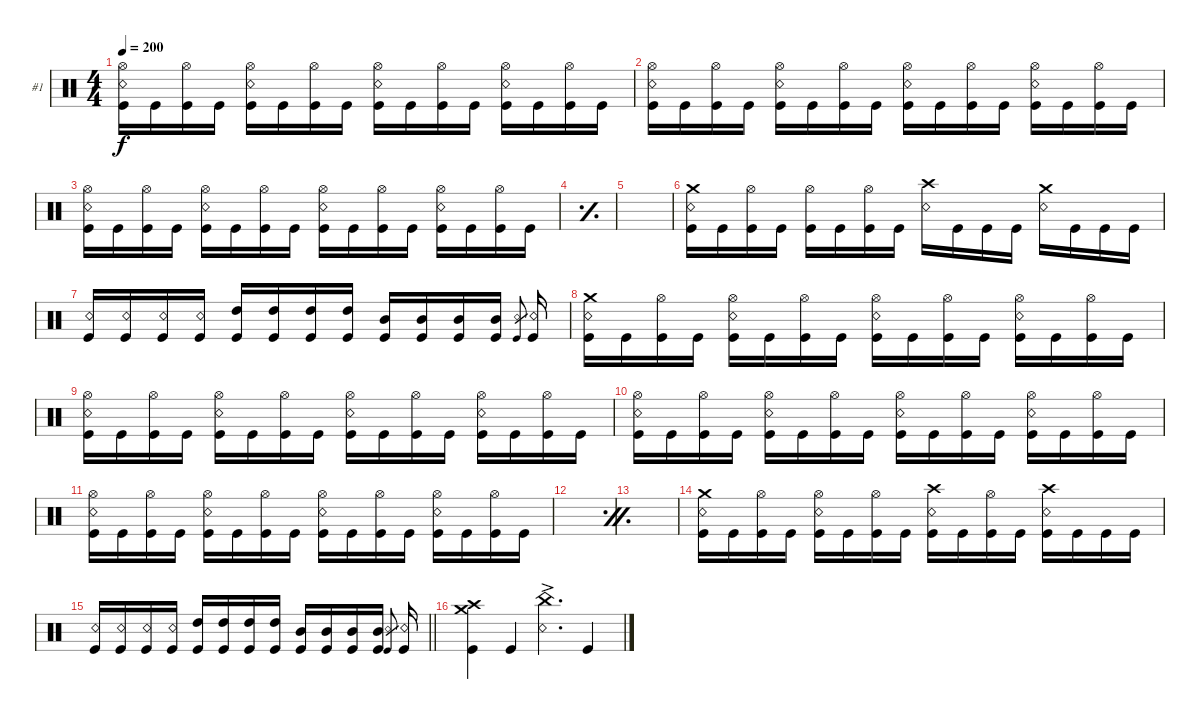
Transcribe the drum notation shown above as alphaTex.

\bracketExtendMode groupsimilarinstruments
\firstSystemTrackNameOrientation horizontal
\otherSystemsTrackNameOrientation horizontal
\track ("Joey Jordison" "#1") {instrument percussion}
\staff {score}
\articulation defaults
\ts (4 4)
\tempo 200
\clef neutral
\ks c
("Kick (hit)" "Snare (rim shot)" "Hi-Hat (open)").16{dy f} "Kick (hit)".16 ("Kick (hit)" "Hi-Hat (open)").16 "Kick (hit)".16 ("Kick (hit)" "Snare (rim shot)" "Hi-Hat (open)").16 "Kick (hit)".16 ("Kick (hit)" "Hi-Hat (open)").16 "Kick (hit)".16 ("Kick (hit)" "Snare (rim shot)" "Hi-Hat (open)").16 "Kick (hit)".16 ("Kick (hit)" "Hi-Hat (open)").16 "Kick (hit)".16 ("Kick (hit)" "Snare (rim shot)" "Hi-Hat (open)").16 "Kick (hit)".16 ("Kick (hit)" "Hi-Hat (open)").16 "Kick (hit)".16 |
("Kick (hit)" "Snare (rim shot)" "Hi-Hat (open)").16 "Kick (hit)".16 ("Kick (hit)" "Hi-Hat (open)").16 "Kick (hit)".16 ("Kick (hit)" "Snare (rim shot)" "Hi-Hat (open)").16 "Kick (hit)".16 ("Kick (hit)" "Hi-Hat (open)").16 "Kick (hit)".16 ("Kick (hit)" "Snare (rim shot)" "Hi-Hat (open)").16 "Kick (hit)".16 ("Kick (hit)" "Hi-Hat (open)").16 "Kick (hit)".16 ("Kick (hit)" "Snare (rim shot)" "Hi-Hat (open)").16 "Kick (hit)".16 ("Kick (hit)" "Hi-Hat (open)").16 "Kick (hit)".16 |
("Kick (hit)" "Snare (rim shot)" "Hi-Hat (open)").16 "Kick (hit)".16 ("Kick (hit)" "Hi-Hat (open)").16 "Kick (hit)".16 ("Kick (hit)" "Snare (rim shot)" "Hi-Hat (open)").16 "Kick (hit)".16 ("Kick (hit)" "Hi-Hat (open)").16 "Kick (hit)".16 ("Kick (hit)" "Snare (rim shot)" "Hi-Hat (open)").16 "Kick (hit)".16 ("Kick (hit)" "Hi-Hat (open)").16 "Kick (hit)".16 ("Kick (hit)" "Snare (rim shot)" "Hi-Hat (open)").16 "Kick (hit)".16 ("Kick (hit)" "Hi-Hat (open)").16 "Kick (hit)".16 |
\simile simple
|
|
\simile none
("Kick (hit)" "Snare (rim shot)" "Crash medium (hit)").16 "Kick (hit)".16 ("Kick (hit)" "Hi-Hat (open)").16 "Kick (hit)".16 ("Kick (hit)" "Hi-Hat (open)").16 "Kick (hit)".16 ("Kick (hit)" "Hi-Hat (open)").16 "Kick (hit)".16 ("Snare (rim shot)" "Crash high (hit)").16 "Kick (hit)".16 "Kick (hit)".16 "Kick (hit)".16 ("Snare (rim shot)" "Crash medium (hit)").16 "Kick (hit)".16 "Kick (hit)".16 "Kick (hit)".16 |
("Snare (rim shot)" "Kick (hit)").16 ("Snare (rim shot)" "Kick (hit)").16 ("Kick (hit)" "Snare (rim shot)").16 ("Kick (hit)" "Snare (rim shot)").16 ("High Tom (hit)" "Kick (hit)").16 ("High Tom (hit)" "Kick (hit)").16 ("Kick (hit)" "High Tom (hit)").16 ("Kick (hit)" "High Tom (hit)").16 ("Mid Tom (hit)" "Kick (hit)").16 ("Mid Tom (hit)" "Kick (hit)").16 ("Kick (hit)" "Mid Tom (hit)").16 ("Kick (hit)" "Mid Tom (hit)").16 ("Kick (hit)" "Snare (rim shot)").8{gr} ("Kick (hit)" "Snare (rim shot)").16 |
("Kick (hit)" "Snare (rim shot)" "Crash medium (hit)").16 "Kick (hit)".16 ("Kick (hit)" "Hi-Hat (open)").16 "Kick (hit)".16 ("Kick (hit)" "Snare (rim shot)" "Hi-Hat (open)").16 "Kick (hit)".16 ("Kick (hit)" "Hi-Hat (open)").16 "Kick (hit)".16 ("Kick (hit)" "Snare (rim shot)" "Hi-Hat (open)").16 "Kick (hit)".16 ("Kick (hit)" "Hi-Hat (open)").16 "Kick (hit)".16 ("Kick (hit)" "Snare (rim shot)" "Hi-Hat (open)").16 "Kick (hit)".16 ("Kick (hit)" "Hi-Hat (open)").16 "Kick (hit)".16 |
("Kick (hit)" "Snare (rim shot)" "Hi-Hat (open)").16 "Kick (hit)".16 ("Kick (hit)" "Hi-Hat (open)").16 "Kick (hit)".16 ("Kick (hit)" "Snare (rim shot)" "Hi-Hat (open)").16 "Kick (hit)".16 ("Kick (hit)" "Hi-Hat (open)").16 "Kick (hit)".16 ("Kick (hit)" "Snare (rim shot)" "Hi-Hat (open)").16 "Kick (hit)".16 ("Kick (hit)" "Hi-Hat (open)").16 "Kick (hit)".16 ("Kick (hit)" "Snare (rim shot)" "Hi-Hat (open)").16 "Kick (hit)".16 ("Kick (hit)" "Hi-Hat (open)").16 "Kick (hit)".16 |
("Kick (hit)" "Snare (rim shot)" "Hi-Hat (open)").16 "Kick (hit)".16 ("Kick (hit)" "Hi-Hat (open)").16 "Kick (hit)".16 ("Kick (hit)" "Snare (rim shot)" "Hi-Hat (open)").16 "Kick (hit)".16 ("Kick (hit)" "Hi-Hat (open)").16 "Kick (hit)".16 ("Kick (hit)" "Snare (rim shot)" "Hi-Hat (open)").16 "Kick (hit)".16 ("Kick (hit)" "Hi-Hat (open)").16 "Kick (hit)".16 ("Kick (hit)" "Snare (rim shot)" "Hi-Hat (open)").16 "Kick (hit)".16 ("Kick (hit)" "Hi-Hat (open)").16 "Kick (hit)".16 |
("Kick (hit)" "Snare (rim shot)" "Hi-Hat (open)").16 "Kick (hit)".16 ("Kick (hit)" "Hi-Hat (open)").16 "Kick (hit)".16 ("Kick (hit)" "Snare (rim shot)" "Hi-Hat (open)").16 "Kick (hit)".16 ("Kick (hit)" "Hi-Hat (open)").16 "Kick (hit)".16 ("Kick (hit)" "Snare (rim shot)" "Hi-Hat (open)").16 "Kick (hit)".16 ("Kick (hit)" "Hi-Hat (open)").16 "Kick (hit)".16 ("Kick (hit)" "Snare (rim shot)" "Hi-Hat (open)").16 "Kick (hit)".16 ("Kick (hit)" "Hi-Hat (open)").16 "Kick (hit)".16 |
\simile firstofdouble
|
\simile secondofdouble
|
\simile none
("Kick (hit)" "Snare (rim shot)" "Crash medium (hit)").16 "Kick (hit)".16 ("Kick (hit)" "Hi-Hat (open)").16 "Kick (hit)".16 ("Kick (hit)" "Snare (rim shot)" "Hi-Hat (open)").16 "Kick (hit)".16 ("Kick (hit)" "Hi-Hat (open)").16 "Kick (hit)".16 ("Kick (hit)" "Snare (rim shot)" "Crash high (hit)").16 "Kick (hit)".16 ("Kick (hit)" "Hi-Hat (open)").16 "Kick (hit)".16 ("Kick (hit)" "Snare (rim shot)" "Crash high (hit)").16 "Kick (hit)".16 "Kick (hit)".16 "Kick (hit)".16 |
\barLineRight lightlight
("Snare (rim shot)" "Kick (hit)").16 ("Snare (rim shot)" "Kick (hit)").16 ("Kick (hit)" "Snare (rim shot)").16 ("Kick (hit)" "Snare (rim shot)").16 ("High Tom (hit)" "Kick (hit)").16 ("High Tom (hit)" "Kick (hit)").16 ("Kick (hit)" "High Tom (hit)").16 ("Kick (hit)" "High Tom (hit)").16 ("Mid Tom (hit)" "Kick (hit)").16 ("Mid Tom (hit)" "Kick (hit)").16 ("Kick (hit)" "Mid Tom (hit)").16 ("Kick (hit)" "Mid Tom (hit)").16 ("Kick (hit)" "Snare (rim shot)").8{gr} ("Kick (hit)" "Snare (rim shot)").16 |
("Kick (hit)" "Crash medium (hit)" "Crash high (hit)").4 "Kick (hit)".4 ("Snare (rim shot)" "China (hit)"{ac}).4{d} "Kick (hit)".4
